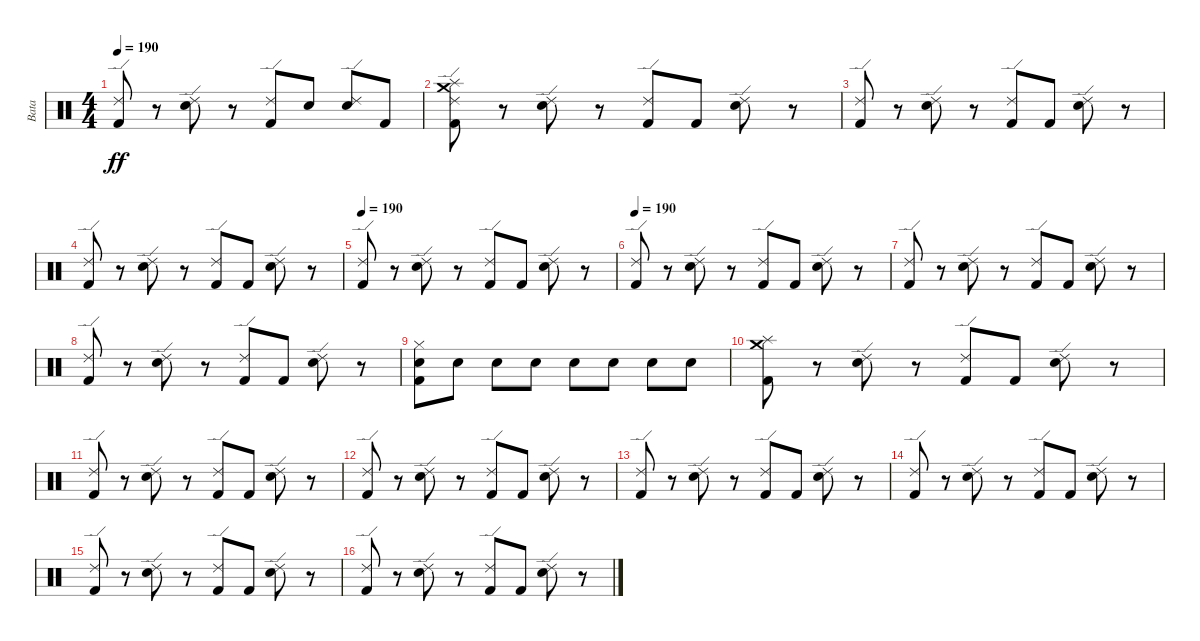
\track ("Bata" "Bata") {instrument percussion}
\staff {score}
\articulation defaults
\ts (4 4)
\tempo 190
\clef neutral
\ks c
("Ride (edge) 2" "Kick (hit) 2").8{dy ff} r.8 ("Ride (edge) 2" "Snare (hit) 2").8 r.8 ("Kick (hit) 2" "Ride (edge) 2").8 "Snare (hit) 2".8 ("Snare (hit) 2" "Ride (edge) 2").8 "Kick (hit) 2".8 |
("Splash (hit)" "Crash medium (hit)" "Ride (edge) 2" "Kick (hit) 2").8 r.8 ("Snare (hit) 2" "Ride (edge) 2").8 r.8 ("Kick (hit) 2" "Ride (edge) 2").8 "Kick (hit) 2".8 ("Ride (edge) 2" "Snare (hit) 2").8 r.8 |
("Ride (edge) 2" "Kick (hit) 2").8 r.8 ("Snare (hit) 2" "Ride (edge) 2").8 r.8 ("Ride (edge) 2" "Kick (hit) 2").8 "Kick (hit) 2".8 ("Ride (edge) 2" "Snare (hit) 2").8 r.8 |
("Kick (hit) 2" "Ride (edge) 2").8 r.8 ("Snare (hit) 2" "Ride (edge) 2").8 r.8 ("Ride (edge) 2" "Kick (hit) 2").8 "Kick (hit) 2".8 ("Snare (hit) 2" "Ride (edge) 2").8 r.8 |
\tempo 190
("Kick (hit) 2" "Ride (edge) 2").8 r.8 ("Ride (edge) 2" "Snare (hit) 2").8 r.8 ("Ride (edge) 2" "Kick (hit) 2").8 "Kick (hit) 2".8 ("Snare (hit) 2" "Ride (edge) 2").8 r.8 |
\tempo 190
("Ride (edge) 2" "Kick (hit) 2").8 r.8 ("Ride (edge) 2" "Snare (hit) 2").8 r.8 ("Kick (hit) 2" "Ride (edge) 2").8 "Kick (hit) 2".8 ("Snare (hit) 2" "Ride (edge) 2").8 r.8 |
("Ride (edge) 2" "Kick (hit) 2").8 r.8 ("Ride (edge) 2" "Snare (hit) 2").8 r.8 ("Kick (hit) 2" "Ride (edge) 2").8 "Kick (hit) 2".8 ("Ride (edge) 2" "Snare (hit) 2").8 r.8 |
("Ride (edge) 2" "Kick (hit) 2").8 r.8 ("Snare (hit) 2" "Ride (edge) 2").8 r.8 ("Kick (hit) 2" "Ride (edge) 2").8 "Kick (hit) 2".8 ("Ride (edge) 2" "Snare (hit) 2").8 r.8 |
("Kick (hit) 2" "Hi-Hat (closed)" "Snare (hit) 2").8 "Snare (hit) 2".8 "Snare (hit) 2".8 "Snare (hit) 2".8 "Snare (hit) 2".8 "Snare (hit) 2".8 "Snare (hit) 2".8 "Snare (hit) 2".8 |
("Kick (hit) 2" "Splash (hit)" "Crash medium (hit)").8 r.8 ("Ride (edge) 2" "Snare (hit) 2").8 r.8 ("Ride (edge) 2" "Kick (hit) 2").8 "Kick (hit) 2".8 ("Snare (hit) 2" "Ride (edge) 2").8 r.8 |
("Kick (hit) 2" "Ride (edge) 2").8 r.8 ("Ride (edge) 2" "Snare (hit) 2").8 r.8 ("Ride (edge) 2" "Kick (hit) 2").8 "Kick (hit) 2".8 ("Snare (hit) 2" "Ride (edge) 2").8 r.8 |
("Ride (edge) 2" "Kick (hit) 2").8 r.8 ("Ride (edge) 2" "Snare (hit) 2").8 r.8 ("Kick (hit) 2" "Ride (edge) 2").8 "Kick (hit) 2".8 ("Snare (hit) 2" "Ride (edge) 2").8 r.8 |
("Ride (edge) 2" "Kick (hit) 2").8 r.8 ("Snare (hit) 2" "Ride (edge) 2").8 r.8 ("Kick (hit) 2" "Ride (edge) 2").8 "Kick (hit) 2".8 ("Ride (edge) 2" "Snare (hit) 2").8 r.8 |
("Ride (edge) 2" "Kick (hit) 2").8 r.8 ("Snare (hit) 2" "Ride (edge) 2").8 r.8 ("Ride (edge) 2" "Kick (hit) 2").8 "Kick (hit) 2".8 ("Ride (edge) 2" "Snare (hit) 2").8 r.8 |
("Kick (hit) 2" "Ride (edge) 2").8 r.8 ("Snare (hit) 2" "Ride (edge) 2").8 r.8 ("Ride (edge) 2" "Kick (hit) 2").8 "Kick (hit) 2".8 ("Snare (hit) 2" "Ride (edge) 2").8 r.8 |
("Kick (hit) 2" "Ride (edge) 2").8 r.8 ("Ride (edge) 2" "Snare (hit) 2").8 r.8 ("Ride (edge) 2" "Kick (hit) 2").8 "Kick (hit) 2".8 ("Snare (hit) 2" "Ride (edge) 2").8 r.8
